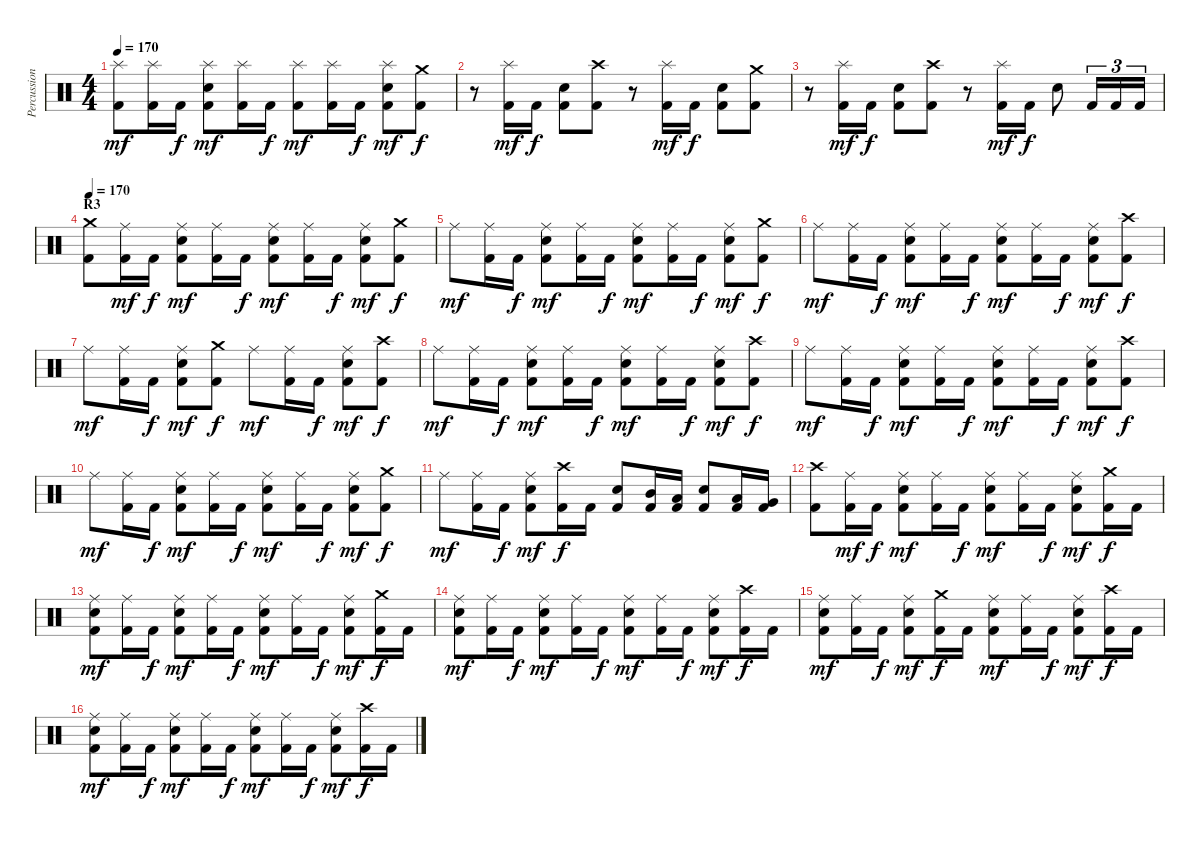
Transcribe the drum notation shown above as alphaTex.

\track ("Percussion" "Percussion") {instrument percussion}
\staff {score}
\articulation defaults
\ts (4 4)
\tempo 170
\clef neutral
\ks c
("Splash (hit)" "Kick (hit) 2").8{dy mf} ("Splash (hit)" "Kick (hit) 2").16 "Kick (hit) 2".16{dy f} ("Splash (hit)" "Electric Snare (hit)" "Kick (hit) 2").8{dy mf} ("Splash (hit)" "Kick (hit) 2").16 "Kick (hit) 2".16{dy f} ("Splash (hit)" "Kick (hit) 2").8{dy mf} ("Splash (hit)" "Kick (hit) 2").16 "Kick (hit) 2".16{dy f} ("Splash (hit)" "Electric Snare (hit)" "Kick (hit) 2").8{dy mf} ("Crash medium (hit)" "Kick (hit) 2").8{dy f} |
r.8 ("Splash (hit)" "Kick (hit) 2").16{dy mf} "Kick (hit) 2".16{dy f} ("Electric Snare (hit)" "Kick (hit) 2").8 ("Crash high (hit)" "Kick (hit) 2").8 r.8 ("Splash (hit)" "Kick (hit) 2").16{dy mf} "Kick (hit) 2".16{dy f} ("Electric Snare (hit)" "Kick (hit) 2").8 ("Crash medium (hit)" "Kick (hit) 2").8 |
r.8 ("Splash (hit)" "Kick (hit) 2").16{dy mf} "Kick (hit) 2".16{dy f} ("Electric Snare (hit)" "Kick (hit) 2").8 ("Crash high (hit)" "Kick (hit) 2").8 r.8 ("Splash (hit)" "Kick (hit) 2").16{dy mf} "Kick (hit) 2".16{dy f} "Electric Snare (hit)".8 "Kick (hit) 2".16{tu (3 2)} "Kick (hit) 2".16{tu (3 2)} "Kick (hit) 2".16{tu (3 2)} |
\section ("" "R3")
\tempo 170
("Crash medium (hit)" "Kick (hit) 2").8 ("Ride (middle)" "Kick (hit) 2").16{dy mf} "Kick (hit) 2".16{dy f} ("Ride (middle)" "Electric Snare (hit)" "Kick (hit) 2").8{dy mf} ("Ride (middle)" "Kick (hit) 2").16 "Kick (hit) 2".16{dy f} ("Ride (middle)" "Electric Snare (hit)" "Kick (hit) 2").8{dy mf} ("Ride (middle)" "Kick (hit) 2").16 "Kick (hit) 2".16{dy f} ("Ride (middle)" "Electric Snare (hit)" "Kick (hit) 2").8{dy mf} ("Crash medium (hit)" "Kick (hit) 2").8{dy f} |
"Ride (middle)".8{dy mf} ("Ride (middle)" "Kick (hit) 2").16 "Kick (hit) 2".16{dy f} ("Ride (middle)" "Electric Snare (hit)" "Kick (hit) 2").8{dy mf} ("Ride (middle)" "Kick (hit) 2").16 "Kick (hit) 2".16{dy f} ("Ride (middle)" "Electric Snare (hit)" "Kick (hit) 2").8{dy mf} ("Ride (middle)" "Kick (hit) 2").16 "Kick (hit) 2".16{dy f} ("Ride (middle)" "Electric Snare (hit)" "Kick (hit) 2").8{dy mf} ("Crash medium (hit)" "Kick (hit) 2").8{dy f} |
"Ride (middle)".8{dy mf} ("Ride (middle)" "Kick (hit) 2").16 "Kick (hit) 2".16{dy f} ("Ride (middle)" "Electric Snare (hit)" "Kick (hit) 2").8{dy mf} ("Ride (middle)" "Kick (hit) 2").16 "Kick (hit) 2".16{dy f} ("Ride (middle)" "Electric Snare (hit)" "Kick (hit) 2").8{dy mf} ("Ride (middle)" "Kick (hit) 2").16 "Kick (hit) 2".16{dy f} ("Ride (middle)" "Electric Snare (hit)" "Kick (hit) 2").8{dy mf} ("Crash high (hit)" "Kick (hit) 2").8{dy f} |
"Ride (middle)".8{dy mf} ("Ride (middle)" "Kick (hit) 2").16 "Kick (hit) 2".16{dy f} ("Ride (middle)" "Electric Snare (hit)" "Kick (hit) 2").8{dy mf} ("Crash medium (hit)" "Kick (hit) 2").8{dy f} "Ride (middle)".8{dy mf} ("Ride (middle)" "Kick (hit) 2").16 "Kick (hit) 2".16{dy f} ("Ride (middle)" "Electric Snare (hit)" "Kick (hit) 2").8{dy mf} ("Crash high (hit)" "Kick (hit) 2").8{dy f} |
"Ride (middle)".8{dy mf} ("Ride (middle)" "Kick (hit) 2").16 "Kick (hit) 2".16{dy f} ("Ride (middle)" "Electric Snare (hit)" "Kick (hit) 2").8{dy mf} ("Ride (middle)" "Kick (hit) 2").16 "Kick (hit) 2".16{dy f} ("Ride (middle)" "Electric Snare (hit)" "Kick (hit) 2").8{dy mf} ("Ride (middle)" "Kick (hit) 2").16 "Kick (hit) 2".16{dy f} ("Ride (middle)" "Electric Snare (hit)" "Kick (hit) 2").8{dy mf} ("Crash high (hit)" "Kick (hit) 2").8{dy f} |
"Ride (middle)".8{dy mf} ("Ride (middle)" "Kick (hit) 2").16 "Kick (hit) 2".16{dy f} ("Ride (middle)" "Electric Snare (hit)" "Kick (hit) 2").8{dy mf} ("Ride (middle)" "Kick (hit) 2").16 "Kick (hit) 2".16{dy f} ("Ride (middle)" "Electric Snare (hit)" "Kick (hit) 2").8{dy mf} ("Ride (middle)" "Kick (hit) 2").16 "Kick (hit) 2".16{dy f} ("Ride (middle)" "Electric Snare (hit)" "Kick (hit) 2").8{dy mf} ("Crash high (hit)" "Kick (hit) 2").8{dy f} |
"Ride (middle)".8{dy mf} ("Ride (middle)" "Kick (hit) 2").16 "Kick (hit) 2".16{dy f} ("Ride (middle)" "Electric Snare (hit)" "Kick (hit) 2").8{dy mf} ("Ride (middle)" "Kick (hit) 2").16 "Kick (hit) 2".16{dy f} ("Ride (middle)" "Electric Snare (hit)" "Kick (hit) 2").8{dy mf} ("Ride (middle)" "Kick (hit) 2").16 "Kick (hit) 2".16{dy f} ("Ride (middle)" "Electric Snare (hit)" "Kick (hit) 2").8{dy mf} ("Crash medium (hit)" "Kick (hit) 2").8{dy f} |
"Ride (middle)".8{dy mf} ("Ride (middle)" "Kick (hit) 2").16 "Kick (hit) 2".16{dy f} ("Ride (middle)" "Electric Snare (hit)" "Kick (hit) 2").8{dy mf} ("Crash high (hit)" "Kick (hit) 2").16{dy f} "Kick (hit) 2".16 ("Electric Snare (hit)" "Kick (hit) 2").8 ("Mid Tom (hit)" "Kick (hit) 2").16 ("Low Tom (hit)" "Kick (hit) 2").16 ("Electric Snare (hit)" "Kick (hit) 2").8 ("Low Tom (hit)" "Kick (hit) 2").16 ("Very Low Tom (hit)" "Kick (hit) 2").16 |
\section ("" "")
("Crash high (hit)" "Kick (hit) 2").8 ("Ride (middle)" "Kick (hit) 2").16{dy mf} "Kick (hit) 2".16{dy f} ("Ride (middle)" "Electric Snare (hit)" "Kick (hit) 2").8{dy mf} ("Ride (middle)" "Kick (hit) 2").16 "Kick (hit) 2".16{dy f} ("Ride (middle)" "Electric Snare (hit)" "Kick (hit) 2").8{dy mf} ("Ride (middle)" "Kick (hit) 2").16 "Kick (hit) 2".16{dy f} ("Ride (middle)" "Electric Snare (hit)" "Kick (hit) 2").8{dy mf} ("Crash medium (hit)" "Kick (hit) 2").16{dy f} "Kick (hit) 2".16 |
("Ride (middle)" "Electric Snare (hit)" "Kick (hit) 2").8{dy mf} ("Ride (middle)" "Kick (hit) 2").16 "Kick (hit) 2".16{dy f} ("Ride (middle)" "Electric Snare (hit)" "Kick (hit) 2").8{dy mf} ("Ride (middle)" "Kick (hit) 2").16 "Kick (hit) 2".16{dy f} ("Ride (middle)" "Electric Snare (hit)" "Kick (hit) 2").8{dy mf} ("Ride (middle)" "Kick (hit) 2").16 "Kick (hit) 2".16{dy f} ("Ride (middle)" "Electric Snare (hit)" "Kick (hit) 2").8{dy mf} ("Crash medium (hit)" "Kick (hit) 2").16{dy f} "Kick (hit) 2".16 |
("Ride (middle)" "Electric Snare (hit)" "Kick (hit) 2").8{dy mf} ("Ride (middle)" "Kick (hit) 2").16 "Kick (hit) 2".16{dy f} ("Ride (middle)" "Electric Snare (hit)" "Kick (hit) 2").8{dy mf} ("Ride (middle)" "Kick (hit) 2").16 "Kick (hit) 2".16{dy f} ("Ride (middle)" "Electric Snare (hit)" "Kick (hit) 2").8{dy mf} ("Ride (middle)" "Kick (hit) 2").16 "Kick (hit) 2".16{dy f} ("Ride (middle)" "Electric Snare (hit)" "Kick (hit) 2").8{dy mf} ("Crash high (hit)" "Kick (hit) 2").16{dy f} "Kick (hit) 2".16 |
("Ride (middle)" "Electric Snare (hit)" "Kick (hit) 2").8{dy mf} ("Ride (middle)" "Kick (hit) 2").16 "Kick (hit) 2".16{dy f} ("Ride (middle)" "Electric Snare (hit)" "Kick (hit) 2").8{dy mf} ("Crash medium (hit)" "Kick (hit) 2").16{dy f} "Kick (hit) 2".16 ("Ride (middle)" "Electric Snare (hit)" "Kick (hit) 2").8{dy mf} ("Ride (middle)" "Kick (hit) 2").16 "Kick (hit) 2".16{dy f} ("Ride (middle)" "Electric Snare (hit)" "Kick (hit) 2").8{dy mf} ("Crash high (hit)" "Kick (hit) 2").16{dy f} "Kick (hit) 2".16 |
("Ride (middle)" "Electric Snare (hit)" "Kick (hit) 2").8{dy mf} ("Ride (middle)" "Kick (hit) 2").16 "Kick (hit) 2".16{dy f} ("Ride (middle)" "Electric Snare (hit)" "Kick (hit) 2").8{dy mf} ("Ride (middle)" "Kick (hit) 2").16 "Kick (hit) 2".16{dy f} ("Ride (middle)" "Electric Snare (hit)" "Kick (hit) 2").8{dy mf} ("Ride (middle)" "Kick (hit) 2").16 "Kick (hit) 2".16{dy f} ("Ride (middle)" "Electric Snare (hit)" "Kick (hit) 2").8{dy mf} ("Crash high (hit)" "Kick (hit) 2").16{dy f} "Kick (hit) 2".16
